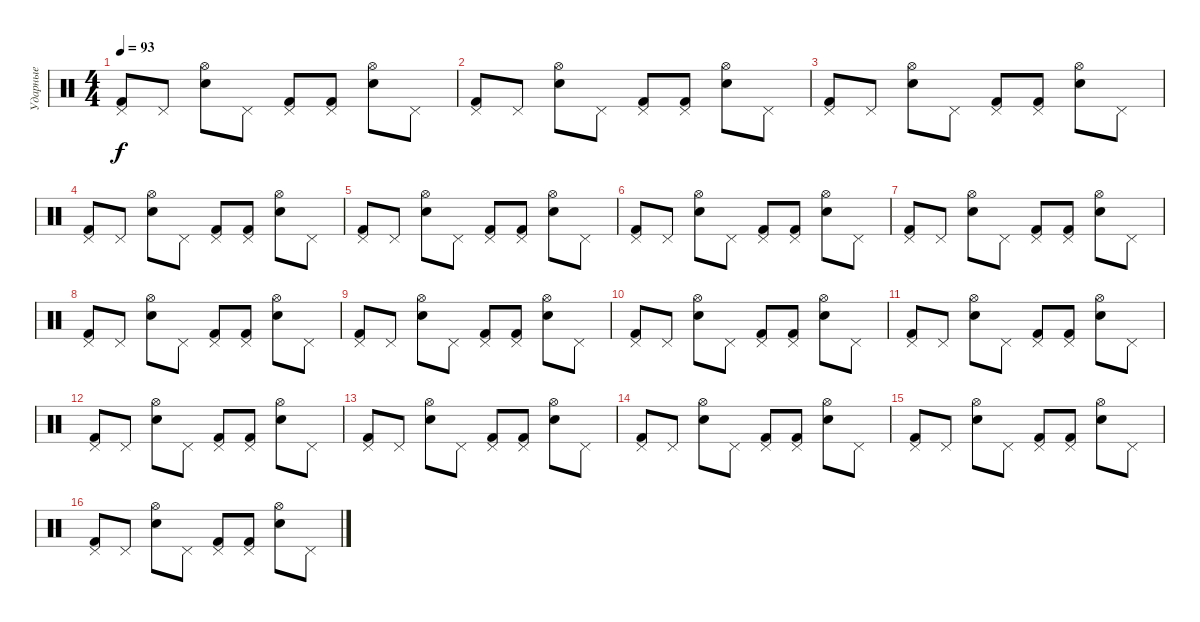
\track ("Ударные" "Ударные") {instrument percussion}
\staff {score}
\articulation defaults
\ts (4 4)
\tempo 93
\clef neutral
\ks c
("Kick (hit) 2" "Pedal Hi-Hat (hit)").8{dy f} "Pedal Hi-Hat (hit)".8 ("Hi-Hat (open)" "Snare (hit) 2").8 "Pedal Hi-Hat (hit)".8 ("Kick (hit) 2" "Pedal Hi-Hat (hit)").8 ("Kick (hit) 2" "Pedal Hi-Hat (hit)").8 ("Hi-Hat (open)" "Snare (hit) 2").8 "Pedal Hi-Hat (hit)".8 |
("Kick (hit) 2" "Pedal Hi-Hat (hit)").8 "Pedal Hi-Hat (hit)".8 ("Hi-Hat (open)" "Snare (hit) 2").8 "Pedal Hi-Hat (hit)".8 ("Kick (hit) 2" "Pedal Hi-Hat (hit)").8 ("Kick (hit) 2" "Pedal Hi-Hat (hit)").8 ("Hi-Hat (open)" "Snare (hit) 2").8 "Pedal Hi-Hat (hit)".8 |
("Kick (hit) 2" "Pedal Hi-Hat (hit)").8 "Pedal Hi-Hat (hit)".8 ("Hi-Hat (open)" "Snare (hit) 2").8 "Pedal Hi-Hat (hit)".8 ("Kick (hit) 2" "Pedal Hi-Hat (hit)").8 ("Kick (hit) 2" "Pedal Hi-Hat (hit)").8 ("Hi-Hat (open)" "Snare (hit) 2").8 "Pedal Hi-Hat (hit)".8 |
("Kick (hit) 2" "Pedal Hi-Hat (hit)").8 "Pedal Hi-Hat (hit)".8 ("Hi-Hat (open)" "Snare (hit) 2").8 "Pedal Hi-Hat (hit)".8 ("Kick (hit) 2" "Pedal Hi-Hat (hit)").8 ("Kick (hit) 2" "Pedal Hi-Hat (hit)").8 ("Hi-Hat (open)" "Snare (hit) 2").8 "Pedal Hi-Hat (hit)".8 |
("Kick (hit) 2" "Pedal Hi-Hat (hit)").8 "Pedal Hi-Hat (hit)".8 ("Hi-Hat (open)" "Snare (hit) 2").8 "Pedal Hi-Hat (hit)".8 ("Kick (hit) 2" "Pedal Hi-Hat (hit)").8 ("Kick (hit) 2" "Pedal Hi-Hat (hit)").8 ("Hi-Hat (open)" "Snare (hit) 2").8 "Pedal Hi-Hat (hit)".8 |
("Kick (hit) 2" "Pedal Hi-Hat (hit)").8 "Pedal Hi-Hat (hit)".8 ("Hi-Hat (open)" "Snare (hit) 2").8 "Pedal Hi-Hat (hit)".8 ("Kick (hit) 2" "Pedal Hi-Hat (hit)").8 ("Kick (hit) 2" "Pedal Hi-Hat (hit)").8 ("Hi-Hat (open)" "Snare (hit) 2").8 "Pedal Hi-Hat (hit)".8 |
("Kick (hit) 2" "Pedal Hi-Hat (hit)").8 "Pedal Hi-Hat (hit)".8 ("Hi-Hat (open)" "Snare (hit) 2").8 "Pedal Hi-Hat (hit)".8 ("Kick (hit) 2" "Pedal Hi-Hat (hit)").8 ("Kick (hit) 2" "Pedal Hi-Hat (hit)").8 ("Hi-Hat (open)" "Snare (hit) 2").8 "Pedal Hi-Hat (hit)".8 |
("Kick (hit) 2" "Pedal Hi-Hat (hit)").8 "Pedal Hi-Hat (hit)".8 ("Hi-Hat (open)" "Snare (hit) 2").8 "Pedal Hi-Hat (hit)".8 ("Kick (hit) 2" "Pedal Hi-Hat (hit)").8 ("Kick (hit) 2" "Pedal Hi-Hat (hit)").8 ("Hi-Hat (open)" "Snare (hit) 2").8 "Pedal Hi-Hat (hit)".8 |
("Kick (hit) 2" "Pedal Hi-Hat (hit)").8 "Pedal Hi-Hat (hit)".8 ("Hi-Hat (open)" "Snare (hit) 2").8 "Pedal Hi-Hat (hit)".8 ("Kick (hit) 2" "Pedal Hi-Hat (hit)").8 ("Kick (hit) 2" "Pedal Hi-Hat (hit)").8 ("Hi-Hat (open)" "Snare (hit) 2").8 "Pedal Hi-Hat (hit)".8 |
("Kick (hit) 2" "Pedal Hi-Hat (hit)").8 "Pedal Hi-Hat (hit)".8 ("Hi-Hat (open)" "Snare (hit) 2").8 "Pedal Hi-Hat (hit)".8 ("Kick (hit) 2" "Pedal Hi-Hat (hit)").8 ("Kick (hit) 2" "Pedal Hi-Hat (hit)").8 ("Hi-Hat (open)" "Snare (hit) 2").8 "Pedal Hi-Hat (hit)".8 |
("Kick (hit) 2" "Pedal Hi-Hat (hit)").8 "Pedal Hi-Hat (hit)".8 ("Hi-Hat (open)" "Snare (hit) 2").8 "Pedal Hi-Hat (hit)".8 ("Kick (hit) 2" "Pedal Hi-Hat (hit)").8 ("Kick (hit) 2" "Pedal Hi-Hat (hit)").8 ("Hi-Hat (open)" "Snare (hit) 2").8 "Pedal Hi-Hat (hit)".8 |
("Kick (hit) 2" "Pedal Hi-Hat (hit)").8 "Pedal Hi-Hat (hit)".8 ("Hi-Hat (open)" "Snare (hit) 2").8 "Pedal Hi-Hat (hit)".8 ("Kick (hit) 2" "Pedal Hi-Hat (hit)").8 ("Kick (hit) 2" "Pedal Hi-Hat (hit)").8 ("Hi-Hat (open)" "Snare (hit) 2").8 "Pedal Hi-Hat (hit)".8 |
("Kick (hit) 2" "Pedal Hi-Hat (hit)").8 "Pedal Hi-Hat (hit)".8 ("Hi-Hat (open)" "Snare (hit) 2").8 "Pedal Hi-Hat (hit)".8 ("Kick (hit) 2" "Pedal Hi-Hat (hit)").8 ("Kick (hit) 2" "Pedal Hi-Hat (hit)").8 ("Hi-Hat (open)" "Snare (hit) 2").8 "Pedal Hi-Hat (hit)".8 |
("Kick (hit) 2" "Pedal Hi-Hat (hit)").8 "Pedal Hi-Hat (hit)".8 ("Hi-Hat (open)" "Snare (hit) 2").8 "Pedal Hi-Hat (hit)".8 ("Kick (hit) 2" "Pedal Hi-Hat (hit)").8 ("Kick (hit) 2" "Pedal Hi-Hat (hit)").8 ("Hi-Hat (open)" "Snare (hit) 2").8 "Pedal Hi-Hat (hit)".8 |
("Kick (hit) 2" "Pedal Hi-Hat (hit)").8 "Pedal Hi-Hat (hit)".8 ("Hi-Hat (open)" "Snare (hit) 2").8 "Pedal Hi-Hat (hit)".8 ("Kick (hit) 2" "Pedal Hi-Hat (hit)").8 ("Kick (hit) 2" "Pedal Hi-Hat (hit)").8 ("Hi-Hat (open)" "Snare (hit) 2").8 "Pedal Hi-Hat (hit)".8 |
("Kick (hit) 2" "Pedal Hi-Hat (hit)").8 "Pedal Hi-Hat (hit)".8 ("Hi-Hat (open)" "Snare (hit) 2").8 "Pedal Hi-Hat (hit)".8 ("Kick (hit) 2" "Pedal Hi-Hat (hit)").8 ("Kick (hit) 2" "Pedal Hi-Hat (hit)").8 ("Hi-Hat (open)" "Snare (hit) 2").8 "Pedal Hi-Hat (hit)".8
